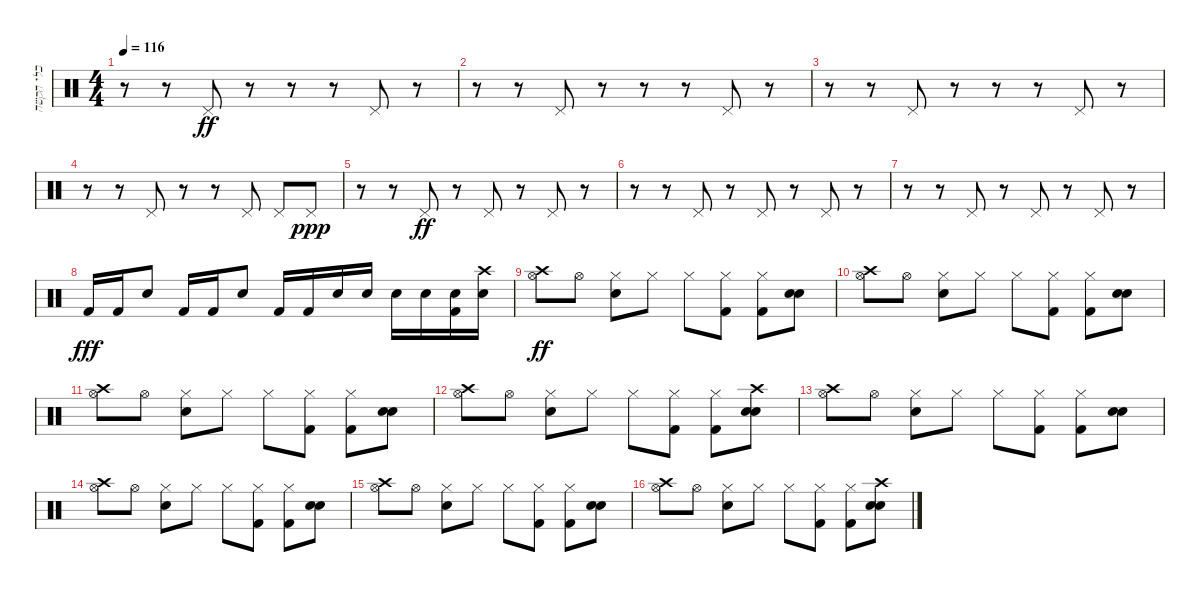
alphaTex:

\track ("כלי הקשה" "כלי הקשה") {instrument percussion}
\staff {score}
\articulation defaults
\ts (4 4)
\tempo 116
\clef neutral
\ks c
r.8{dy ff} r.8 "Pedal Hi-Hat (hit)".8 r.8 r.8 r.8 "Pedal Hi-Hat (hit)".8 r.8 |
r.8 r.8 "Pedal Hi-Hat (hit)".8 r.8 r.8 r.8 "Pedal Hi-Hat (hit)".8 r.8 |
r.8 r.8 "Pedal Hi-Hat (hit)".8 r.8 r.8 r.8 "Pedal Hi-Hat (hit)".8 r.8 |
r.8 r.8 "Pedal Hi-Hat (hit)".8 r.8 r.8 "Pedal Hi-Hat (hit)".8 "Pedal Hi-Hat (hit)".8 "Pedal Hi-Hat (hit)".8{dy ppp} |
r.8 r.8 "Pedal Hi-Hat (hit)".8{dy ff} r.8 "Pedal Hi-Hat (hit)".8 r.8 "Pedal Hi-Hat (hit)".8 r.8 |
r.8 r.8 "Pedal Hi-Hat (hit)".8 r.8 "Pedal Hi-Hat (hit)".8 r.8 "Pedal Hi-Hat (hit)".8 r.8 |
r.8 r.8 "Pedal Hi-Hat (hit)".8 r.8 "Pedal Hi-Hat (hit)".8 r.8 "Pedal Hi-Hat (hit)".8 r.8 |
"Kick (hit) 2".16{dy fff} "Kick (hit) 2".16 "Snare (hit) 2".8 "Kick (hit) 2".16 "Kick (hit) 2".16 "Snare (hit) 2".8 "Kick (hit) 2".16 "Kick (hit) 2".16 "Snare (hit) 2".16 "Snare (hit) 2".16 "Snare (hit) 2".16 "Snare (hit) 2".16 ("Electric Snare (hit)" "Kick (hit) 2").16 ("Crash high (hit)" "Electric Snare (hit)").16 |
("Hi-Hat (open)" "Crash high (hit)").8{dy ff} "Hi-Hat (open)".8 ("Hi-Hat (closed)" "Snare (hit) 2").8 "Hi-Hat (closed)".8 "Hi-Hat (closed)".8 ("Hi-Hat (closed)" "Kick (hit) 2").8 ("Hi-Hat (closed)" "Kick (hit) 2").8 ("Electric Snare (hit)" "Snare (hit) 2").8 |
("Hi-Hat (open)" "Crash high (hit)").8 "Hi-Hat (open)".8 ("Hi-Hat (closed)" "Snare (hit) 2").8 "Hi-Hat (closed)".8 "Hi-Hat (closed)".8 ("Hi-Hat (closed)" "Kick (hit) 2").8 ("Hi-Hat (closed)" "Kick (hit) 2").8 ("Electric Snare (hit)" "Snare (hit) 2").8 |
("Hi-Hat (open)" "Crash high (hit)").8 "Hi-Hat (open)".8 ("Hi-Hat (closed)" "Snare (hit) 2").8 "Hi-Hat (closed)".8 "Hi-Hat (closed)".8 ("Hi-Hat (closed)" "Kick (hit) 2").8 ("Hi-Hat (closed)" "Kick (hit) 2").8 ("Electric Snare (hit)" "Snare (hit) 2").8 |
("Hi-Hat (open)" "Crash high (hit)").8 "Hi-Hat (open)".8 ("Hi-Hat (closed)" "Snare (hit) 2").8 "Hi-Hat (closed)".8 "Hi-Hat (closed)".8 ("Hi-Hat (closed)" "Kick (hit) 2").8 ("Hi-Hat (closed)" "Kick (hit) 2").8 ("Crash high (hit)" "Electric Snare (hit)" "Snare (hit) 2").8 |
("Hi-Hat (open)" "Crash high (hit)").8 "Hi-Hat (open)".8 ("Hi-Hat (closed)" "Snare (hit) 2").8 "Hi-Hat (closed)".8 "Hi-Hat (closed)".8 ("Hi-Hat (closed)" "Kick (hit) 2").8 ("Hi-Hat (closed)" "Kick (hit) 2").8 ("Electric Snare (hit)" "Snare (hit) 2").8 |
("Hi-Hat (open)" "Crash high (hit)").8 "Hi-Hat (open)".8 ("Hi-Hat (closed)" "Snare (hit) 2").8 "Hi-Hat (closed)".8 "Hi-Hat (closed)".8 ("Hi-Hat (closed)" "Kick (hit) 2").8 ("Hi-Hat (closed)" "Kick (hit) 2").8 ("Electric Snare (hit)" "Snare (hit) 2").8 |
("Hi-Hat (open)" "Crash high (hit)").8 "Hi-Hat (open)".8 ("Hi-Hat (closed)" "Snare (hit) 2").8 "Hi-Hat (closed)".8 "Hi-Hat (closed)".8 ("Hi-Hat (closed)" "Kick (hit) 2").8 ("Hi-Hat (closed)" "Kick (hit) 2").8 ("Electric Snare (hit)" "Snare (hit) 2").8 |
("Hi-Hat (open)" "Crash high (hit)").8 "Hi-Hat (open)".8 ("Hi-Hat (closed)" "Snare (hit) 2").8 "Hi-Hat (closed)".8 "Hi-Hat (closed)".8 ("Hi-Hat (closed)" "Kick (hit) 2").8 ("Hi-Hat (closed)" "Kick (hit) 2").8 ("Crash high (hit)" "Electric Snare (hit)" "Snare (hit) 2").8
